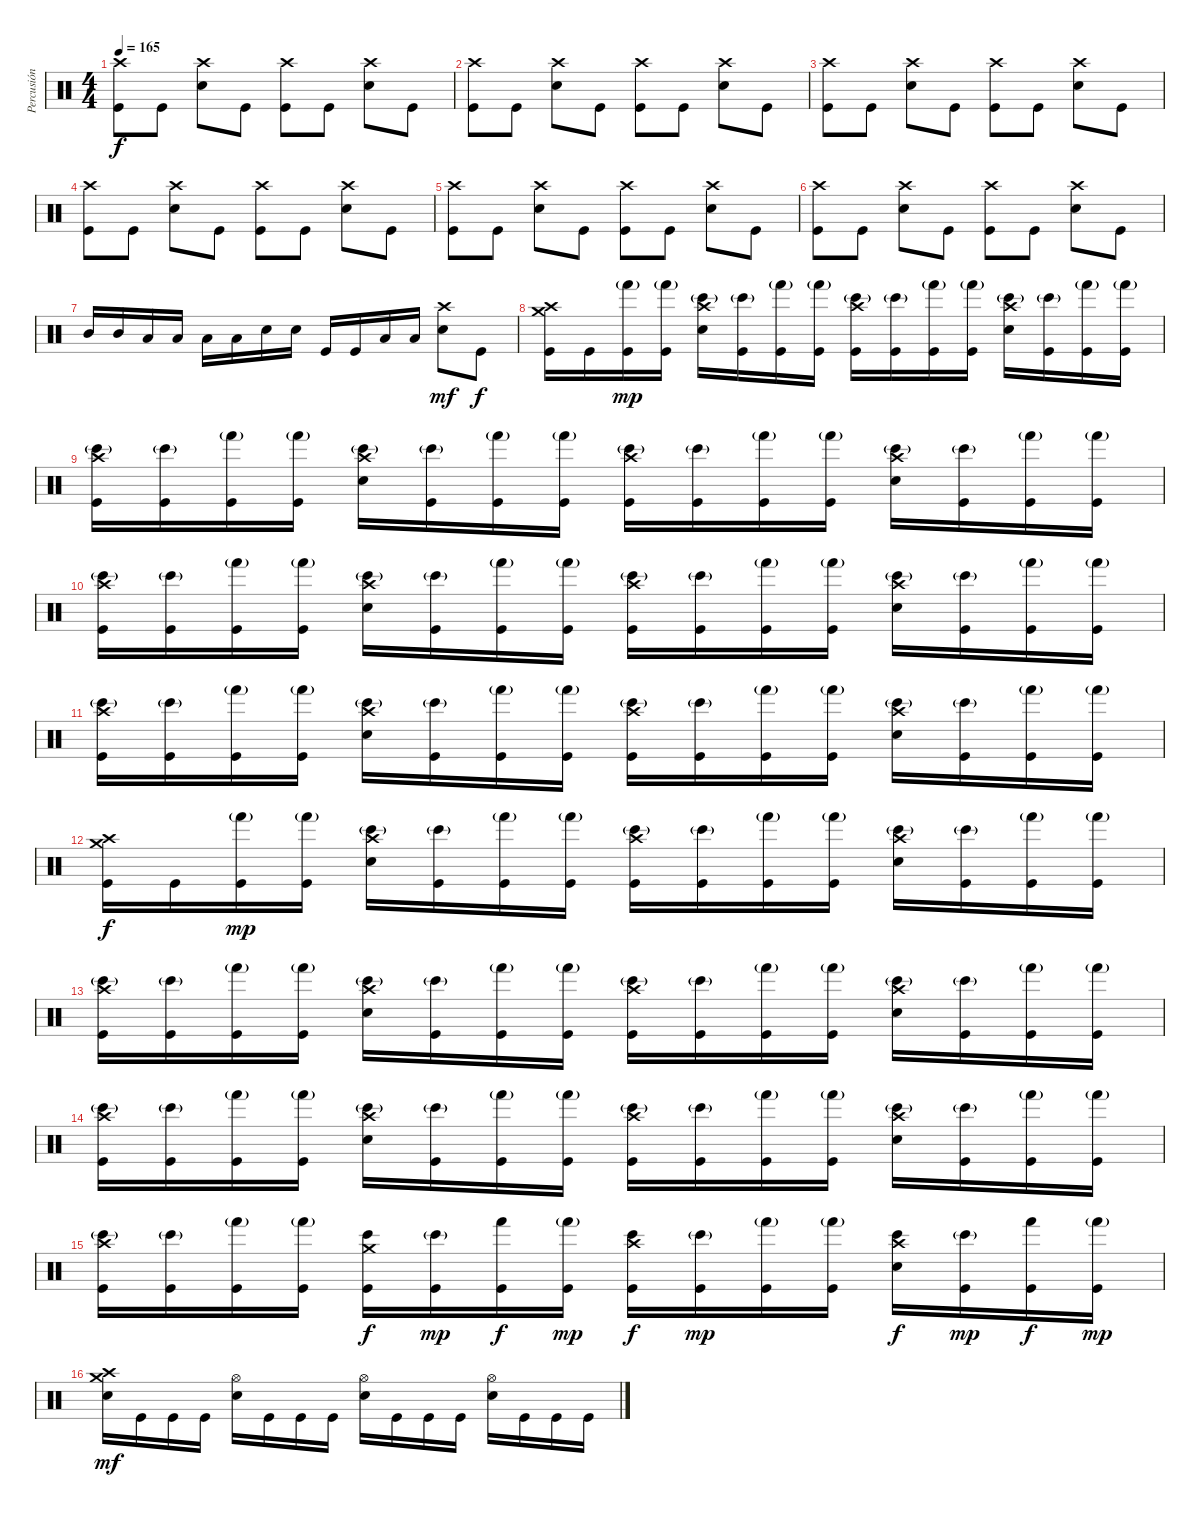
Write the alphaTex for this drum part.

\track ("Percusión" "Percusión") {instrument percussion}
\staff {score}
\articulation defaults
\ts (4 4)
\tempo 165
\clef neutral
\ks c
("Crash high (hit)" "Kick (hit)").8{dy f} "Kick (hit)".8 ("Crash high (hit)" "Electric Snare (hit)").8 "Kick (hit)".8 ("Crash high (hit)" "Kick (hit)").8 "Kick (hit)".8 ("Crash high (hit)" "Electric Snare (hit)").8 "Kick (hit)".8 |
("Crash high (hit)" "Kick (hit)").8 "Kick (hit)".8 ("Crash high (hit)" "Electric Snare (hit)").8 "Kick (hit)".8 ("Crash high (hit)" "Kick (hit)").8 "Kick (hit)".8 ("Crash high (hit)" "Electric Snare (hit)").8 "Kick (hit)".8 |
("Crash high (hit)" "Kick (hit)").8 "Kick (hit)".8 ("Crash high (hit)" "Electric Snare (hit)").8 "Kick (hit)".8 ("Crash high (hit)" "Kick (hit)").8 "Kick (hit)".8 ("Crash high (hit)" "Electric Snare (hit)").8 "Kick (hit)".8 |
("Crash high (hit)" "Kick (hit)").8 "Kick (hit)".8 ("Crash high (hit)" "Electric Snare (hit)").8 "Kick (hit)".8 ("Crash high (hit)" "Kick (hit)").8 "Kick (hit)".8 ("Crash high (hit)" "Electric Snare (hit)").8 "Kick (hit)".8 |
("Crash high (hit)" "Kick (hit)").8 "Kick (hit)".8 ("Crash high (hit)" "Electric Snare (hit)").8 "Kick (hit)".8 ("Crash high (hit)" "Kick (hit)").8 "Kick (hit)".8 ("Crash high (hit)" "Electric Snare (hit)").8 "Kick (hit)".8 |
("Crash high (hit)" "Kick (hit)").8 "Kick (hit)".8 ("Crash high (hit)" "Electric Snare (hit)").8 "Kick (hit)".8 ("Crash high (hit)" "Kick (hit)").8 "Kick (hit)".8 ("Crash high (hit)" "Electric Snare (hit)").8 "Kick (hit)".8 |
"Mid Tom (hit)".16 "Mid Tom (hit)".16 "Low Tom (hit)".16 "Low Tom (hit)".16 "Low Tom (hit)".16 "Low Tom (hit)".16 "Electric Snare (hit)".16 "Electric Snare (hit)".16 "Kick (hit)".16 "Kick (hit)".16 "Low Tom (hit)".16 "Low Tom (hit)".16 ("Crash high (hit)" "Electric Snare (hit)").8{dy mf} "Kick (hit)".8{dy f} |
("Crash medium (hit)" "Crash high (hit)" "Kick (hit)").16 "Kick (hit)".16 ("Hand (hit)"{g} "Kick (hit)").16{dy mp} ("Hand (hit)"{g} "Kick (hit)").16 ("Bongo High (hit)"{g} "Crash high (hit)" "Electric Snare (hit)").16 ("Bongo High (hit)"{g} "Kick (hit)").16 ("Hand (hit)"{g} "Kick (hit)").16 ("Hand (hit)"{g} "Kick (hit)").16 ("Bongo High (hit)"{g} "Crash high (hit)" "Kick (hit)").16 ("Bongo High (hit)"{g} "Kick (hit)").16 ("Hand (hit)"{g} "Kick (hit)").16 ("Hand (hit)"{g} "Kick (hit)").16 ("Bongo High (hit)"{g} "Crash high (hit)" "Electric Snare (hit)").16 ("Bongo High (hit)"{g} "Kick (hit)").16 ("Hand (hit)"{g} "Kick (hit)").16 ("Hand (hit)"{g} "Kick (hit)").16 |
("Bongo High (hit)"{g} "Crash high (hit)" "Kick (hit)").16 ("Bongo High (hit)"{g} "Kick (hit)").16 ("Hand (hit)"{g} "Kick (hit)").16 ("Hand (hit)"{g} "Kick (hit)").16 ("Bongo High (hit)"{g} "Crash high (hit)" "Electric Snare (hit)").16 ("Bongo High (hit)"{g} "Kick (hit)").16 ("Hand (hit)"{g} "Kick (hit)").16 ("Hand (hit)"{g} "Kick (hit)").16 ("Bongo High (hit)"{g} "Crash high (hit)" "Kick (hit)").16 ("Bongo High (hit)"{g} "Kick (hit)").16 ("Hand (hit)"{g} "Kick (hit)").16 ("Hand (hit)"{g} "Kick (hit)").16 ("Bongo High (hit)"{g} "Crash high (hit)" "Electric Snare (hit)").16 ("Bongo High (hit)"{g} "Kick (hit)").16 ("Hand (hit)"{g} "Kick (hit)").16 ("Hand (hit)"{g} "Kick (hit)").16 |
("Bongo High (hit)"{g} "Crash high (hit)" "Kick (hit)").16 ("Bongo High (hit)"{g} "Kick (hit)").16 ("Hand (hit)"{g} "Kick (hit)").16 ("Hand (hit)"{g} "Kick (hit)").16 ("Bongo High (hit)"{g} "Crash high (hit)" "Electric Snare (hit)").16 ("Bongo High (hit)"{g} "Kick (hit)").16 ("Hand (hit)"{g} "Kick (hit)").16 ("Hand (hit)"{g} "Kick (hit)").16 ("Bongo High (hit)"{g} "Crash high (hit)" "Kick (hit)").16 ("Bongo High (hit)"{g} "Kick (hit)").16 ("Hand (hit)"{g} "Kick (hit)").16 ("Hand (hit)"{g} "Kick (hit)").16 ("Bongo High (hit)"{g} "Crash high (hit)" "Electric Snare (hit)").16 ("Bongo High (hit)"{g} "Kick (hit)").16 ("Hand (hit)"{g} "Kick (hit)").16 ("Hand (hit)"{g} "Kick (hit)").16 |
("Bongo High (hit)"{g} "Crash high (hit)" "Kick (hit)").16 ("Bongo High (hit)"{g} "Kick (hit)").16 ("Hand (hit)"{g} "Kick (hit)").16 ("Hand (hit)"{g} "Kick (hit)").16 ("Bongo High (hit)"{g} "Crash high (hit)" "Electric Snare (hit)").16 ("Bongo High (hit)"{g} "Kick (hit)").16 ("Hand (hit)"{g} "Kick (hit)").16 ("Hand (hit)"{g} "Kick (hit)").16 ("Bongo High (hit)"{g} "Crash high (hit)" "Kick (hit)").16 ("Bongo High (hit)"{g} "Kick (hit)").16 ("Hand (hit)"{g} "Kick (hit)").16 ("Hand (hit)"{g} "Kick (hit)").16 ("Bongo High (hit)"{g} "Crash high (hit)" "Electric Snare (hit)").16 ("Bongo High (hit)"{g} "Kick (hit)").16 ("Hand (hit)"{g} "Kick (hit)").16 ("Hand (hit)"{g} "Kick (hit)").16 |
("Crash medium (hit)" "Crash high (hit)" "Kick (hit)").16{dy f} "Kick (hit)".16 ("Hand (hit)"{g} "Kick (hit)").16{dy mp} ("Hand (hit)"{g} "Kick (hit)").16 ("Bongo High (hit)"{g} "Crash high (hit)" "Electric Snare (hit)").16 ("Bongo High (hit)"{g} "Kick (hit)").16 ("Hand (hit)"{g} "Kick (hit)").16 ("Hand (hit)"{g} "Kick (hit)").16 ("Bongo High (hit)"{g} "Crash high (hit)" "Kick (hit)").16 ("Bongo High (hit)"{g} "Kick (hit)").16 ("Hand (hit)"{g} "Kick (hit)").16 ("Hand (hit)"{g} "Kick (hit)").16 ("Bongo High (hit)"{g} "Crash high (hit)" "Electric Snare (hit)").16 ("Bongo High (hit)"{g} "Kick (hit)").16 ("Hand (hit)"{g} "Kick (hit)").16 ("Hand (hit)"{g} "Kick (hit)").16 |
("Bongo High (hit)"{g} "Crash high (hit)" "Kick (hit)").16 ("Bongo High (hit)"{g} "Kick (hit)").16 ("Hand (hit)"{g} "Kick (hit)").16 ("Hand (hit)"{g} "Kick (hit)").16 ("Bongo High (hit)"{g} "Crash high (hit)" "Electric Snare (hit)").16 ("Bongo High (hit)"{g} "Kick (hit)").16 ("Hand (hit)"{g} "Kick (hit)").16 ("Hand (hit)"{g} "Kick (hit)").16 ("Bongo High (hit)"{g} "Crash high (hit)" "Kick (hit)").16 ("Bongo High (hit)"{g} "Kick (hit)").16 ("Hand (hit)"{g} "Kick (hit)").16 ("Hand (hit)"{g} "Kick (hit)").16 ("Bongo High (hit)"{g} "Crash high (hit)" "Electric Snare (hit)").16 ("Bongo High (hit)"{g} "Kick (hit)").16 ("Hand (hit)"{g} "Kick (hit)").16 ("Hand (hit)"{g} "Kick (hit)").16 |
("Bongo High (hit)"{g} "Crash high (hit)" "Kick (hit)").16 ("Bongo High (hit)"{g} "Kick (hit)").16 ("Hand (hit)"{g} "Kick (hit)").16 ("Hand (hit)"{g} "Kick (hit)").16 ("Bongo High (hit)"{g} "Crash high (hit)" "Electric Snare (hit)").16 ("Bongo High (hit)"{g} "Kick (hit)").16 ("Hand (hit)"{g} "Kick (hit)").16 ("Hand (hit)"{g} "Kick (hit)").16 ("Bongo High (hit)"{g} "Crash high (hit)" "Kick (hit)").16 ("Bongo High (hit)"{g} "Kick (hit)").16 ("Hand (hit)"{g} "Kick (hit)").16 ("Hand (hit)"{g} "Kick (hit)").16 ("Bongo High (hit)"{g} "Crash high (hit)" "Electric Snare (hit)").16 ("Bongo High (hit)"{g} "Kick (hit)").16 ("Hand (hit)"{g} "Kick (hit)").16 ("Hand (hit)"{g} "Kick (hit)").16 |
("Bongo High (hit)"{g} "Crash high (hit)" "Kick (hit)").16 ("Bongo High (hit)"{g} "Kick (hit)").16 ("Hand (hit)"{g} "Kick (hit)").16 ("Hand (hit)"{g} "Kick (hit)").16 ("Bongo High (hit)" "Crash medium (hit)" "Kick (hit)").16{dy f} ("Bongo High (hit)"{g} "Kick (hit)").16{dy mp} ("Hand (hit)" "Kick (hit)").16{dy f} ("Hand (hit)"{g} "Kick (hit)").16{dy mp} ("Bongo High (hit)" "Crash high (hit)" "Kick (hit)").16{dy f} ("Bongo High (hit)"{g} "Kick (hit)").16{dy mp} ("Hand (hit)"{g} "Kick (hit)").16 ("Hand (hit)"{g} "Kick (hit)").16 ("Bongo High (hit)" "Crash high (hit)" "Electric Snare (hit)").16{dy f} ("Bongo High (hit)"{g} "Kick (hit)").16{dy mp} ("Hand (hit)" "Kick (hit)").16{dy f} ("Hand (hit)"{g} "Kick (hit)").16{dy mp} |
("Crash medium (hit)" "Crash high (hit)" "Electric Snare (hit)").16{dy mf} "Kick (hit)".16 "Kick (hit)".16 "Kick (hit)".16 ("Hi-Hat (open)" "Electric Snare (hit)").16 "Kick (hit)".16 "Kick (hit)".16 "Kick (hit)".16 ("Hi-Hat (open)" "Electric Snare (hit)").16 "Kick (hit)".16 "Kick (hit)".16 "Kick (hit)".16 ("Hi-Hat (open)" "Electric Snare (hit)").16 "Kick (hit)".16 "Kick (hit)".16 "Kick (hit)".16
